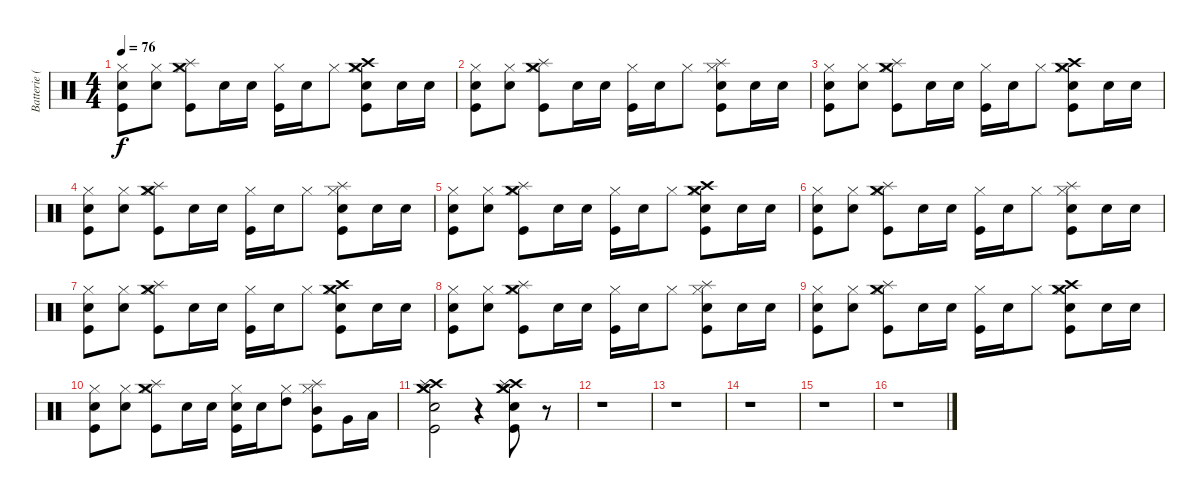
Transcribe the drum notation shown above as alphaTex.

\track ("Batterie (Caroline Corr)" "Batterie (") {instrument percussion}
\staff {score}
\articulation defaults
\ts (4 4)
\tempo 76
\clef neutral
\ks c
("Hi-Hat (closed)" "Snare (hit) 2" "Kick (hit)").8{dy f} ("Hi-Hat (closed)" "Snare (hit) 2").8 ("Hi-Hat (closed)" "Splash (hit)" "Crash medium (hit)" "Kick (hit)").8 "Snare (hit) 2".16 "Snare (hit) 2".16 ("Hi-Hat (closed)" "Kick (hit)").16 "Snare (hit) 2".16 "Hi-Hat (closed)".8 ("Hi-Hat (closed)" "Snare (hit) 2" "Crash high (hit)" "Crash medium (hit)" "Kick (hit)").8 "Snare (hit) 2".16 "Snare (hit) 2".16 |
("Hi-Hat (closed)" "Snare (hit) 2" "Kick (hit)").8 ("Hi-Hat (closed)" "Snare (hit) 2").8 ("Hi-Hat (closed)" "Splash (hit)" "Crash medium (hit)" "Kick (hit)").8 "Snare (hit) 2".16 "Snare (hit) 2".16 ("Hi-Hat (closed)" "Kick (hit)").16 "Snare (hit) 2".16 "Hi-Hat (closed)".8 ("Hi-Hat (closed)" "Snare (hit) 2" "Splash (hit)" "Kick (hit)").8 "Snare (hit) 2".16 "Snare (hit) 2".16 |
("Hi-Hat (closed)" "Snare (hit) 2" "Kick (hit)").8 ("Hi-Hat (closed)" "Snare (hit) 2").8 ("Hi-Hat (closed)" "Splash (hit)" "Crash medium (hit)" "Kick (hit)").8 "Snare (hit) 2".16 "Snare (hit) 2".16 ("Hi-Hat (closed)" "Kick (hit)").16 "Snare (hit) 2".16 "Hi-Hat (closed)".8 ("Hi-Hat (closed)" "Snare (hit) 2" "Crash high (hit)" "Crash medium (hit)" "Kick (hit)").8 "Snare (hit) 2".16 "Snare (hit) 2".16 |
("Hi-Hat (closed)" "Snare (hit) 2" "Kick (hit)").8 ("Hi-Hat (closed)" "Snare (hit) 2").8 ("Hi-Hat (closed)" "Splash (hit)" "Crash medium (hit)" "Kick (hit)").8 "Snare (hit) 2".16 "Snare (hit) 2".16 ("Hi-Hat (closed)" "Kick (hit)").16 "Snare (hit) 2".16 "Hi-Hat (closed)".8 ("Hi-Hat (closed)" "Snare (hit) 2" "Splash (hit)" "Kick (hit)").8 "Snare (hit) 2".16 "Snare (hit) 2".16 |
("Hi-Hat (closed)" "Snare (hit) 2" "Kick (hit)").8 ("Hi-Hat (closed)" "Snare (hit) 2").8 ("Hi-Hat (closed)" "Splash (hit)" "Crash medium (hit)" "Kick (hit)").8 "Snare (hit) 2".16 "Snare (hit) 2".16 ("Hi-Hat (closed)" "Kick (hit)").16 "Snare (hit) 2".16 "Hi-Hat (closed)".8 ("Hi-Hat (closed)" "Snare (hit) 2" "Crash high (hit)" "Crash medium (hit)" "Kick (hit)").8 "Snare (hit) 2".16 "Snare (hit) 2".16 |
("Hi-Hat (closed)" "Snare (hit) 2" "Kick (hit)").8 ("Hi-Hat (closed)" "Snare (hit) 2").8 ("Hi-Hat (closed)" "Splash (hit)" "Crash medium (hit)" "Kick (hit)").8 "Snare (hit) 2".16 "Snare (hit) 2".16 ("Hi-Hat (closed)" "Kick (hit)").16 "Snare (hit) 2".16 "Hi-Hat (closed)".8 ("Hi-Hat (closed)" "Snare (hit) 2" "Splash (hit)" "Kick (hit)").8 "Snare (hit) 2".16 "Snare (hit) 2".16 |
("Hi-Hat (closed)" "Snare (hit) 2" "Kick (hit)").8 ("Hi-Hat (closed)" "Snare (hit) 2").8 ("Hi-Hat (closed)" "Splash (hit)" "Crash medium (hit)" "Kick (hit)").8 "Snare (hit) 2".16 "Snare (hit) 2".16 ("Hi-Hat (closed)" "Kick (hit)").16 "Snare (hit) 2".16 "Hi-Hat (closed)".8 ("Hi-Hat (closed)" "Snare (hit) 2" "Crash high (hit)" "Crash medium (hit)" "Kick (hit)").8 "Snare (hit) 2".16 "Snare (hit) 2".16 |
("Hi-Hat (closed)" "Snare (hit) 2" "Kick (hit)").8 ("Hi-Hat (closed)" "Snare (hit) 2").8 ("Hi-Hat (closed)" "Splash (hit)" "Crash medium (hit)" "Kick (hit)").8 "Snare (hit) 2".16 "Snare (hit) 2".16 ("Hi-Hat (closed)" "Kick (hit)").16 "Snare (hit) 2".16 "Hi-Hat (closed)".8 ("Hi-Hat (closed)" "Snare (hit) 2" "Splash (hit)" "Kick (hit)").8 "Snare (hit) 2".16 "Snare (hit) 2".16 |
("Hi-Hat (closed)" "Snare (hit) 2" "Kick (hit)").8 ("Hi-Hat (closed)" "Snare (hit) 2").8 ("Hi-Hat (closed)" "Splash (hit)" "Crash medium (hit)" "Kick (hit)").8 "Snare (hit) 2".16 "Snare (hit) 2".16 ("Hi-Hat (closed)" "Kick (hit)").16 "Snare (hit) 2".16 "Hi-Hat (closed)".8 ("Hi-Hat (closed)" "Snare (hit) 2" "Crash high (hit)" "Crash medium (hit)" "Kick (hit)").8 "Snare (hit) 2".16 "Snare (hit) 2".16 |
("Hi-Hat (closed)" "Snare (hit) 2" "Kick (hit)").8 ("Hi-Hat (closed)" "Snare (hit) 2").8 ("Hi-Hat (closed)" "Splash (hit)" "Crash medium (hit)" "Kick (hit)").8 "Snare (hit) 2".16 "Snare (hit) 2".16 ("Hi-Hat (closed)" "Snare (hit) 2" "Kick (hit)").16 "Snare (hit) 2".16 ("Hi-Hat (closed)" "High Tom (hit)").8 ("Hi-Hat (closed)" "Mid Tom (hit)" "Splash (hit)" "Kick (hit)").8 "Very Low Tom (hit)".16 "Low Tom (hit)".16 |
("Snare (hit) 2" "Crash medium (hit)" "Crash high (hit)" "Splash (hit)" "Crash medium (hit)" "Kick (hit)").2 r.4 ("Snare (hit) 2" "Crash medium (hit)" "Crash high (hit)" "Splash (hit)" "Crash medium (hit)" "Kick (hit)").8 r.8 |
r.1 |
r.1 |
r.1 |
r.1 |
r.1
